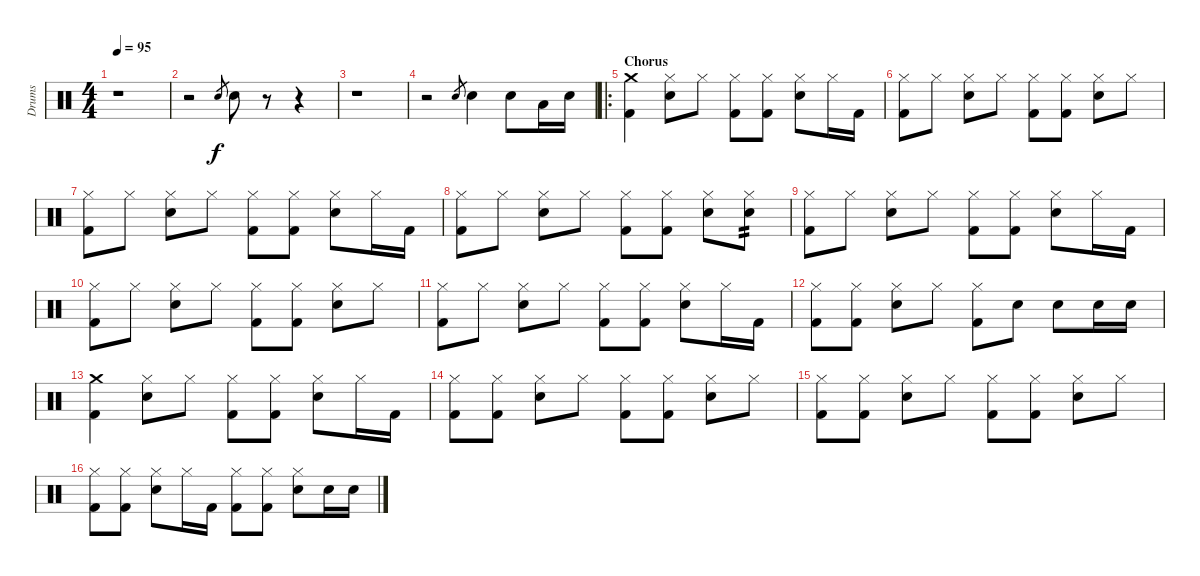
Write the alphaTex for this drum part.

\track ("Drums" "Drums") {instrument percussion}
\staff {score}
\articulation defaults
\ts (4 4)
\tempo 95
\clef neutral
\ks c
r.1{dy f} |
r.2 "Snare (hit) 2".8{gr} "Snare (hit) 2".8 r.8 r.4 |
r.1 |
r.2 "Snare (hit) 2".8{gr} "Snare (hit) 2".4 "Snare (hit) 2".8 "Low Tom (hit)".16 "Snare (hit) 2".16 |
\ro
\section ("" "Chorus")
("Crash medium (hit)" "Kick (hit) 2").4 ("Hi-Hat (closed)" "Snare (hit) 2").8 "Hi-Hat (closed)".8 ("Hi-Hat (closed)" "Kick (hit) 2").8 ("Hi-Hat (closed)" "Kick (hit) 2").8 ("Hi-Hat (closed)" "Snare (hit) 2").8 "Hi-Hat (closed)".16 "Kick (hit) 2".16 |
("Hi-Hat (closed)" "Kick (hit) 2").8 "Hi-Hat (closed)".8 ("Hi-Hat (closed)" "Snare (hit) 2").8 "Hi-Hat (closed)".8 ("Hi-Hat (closed)" "Kick (hit) 2").8 ("Hi-Hat (closed)" "Kick (hit) 2").8 ("Hi-Hat (closed)" "Snare (hit) 2").8 "Hi-Hat (closed)".8 |
("Hi-Hat (closed)" "Kick (hit) 2").8 "Hi-Hat (closed)".8 ("Hi-Hat (closed)" "Snare (hit) 2").8 "Hi-Hat (closed)".8 ("Hi-Hat (closed)" "Kick (hit) 2").8 ("Hi-Hat (closed)" "Kick (hit) 2").8 ("Hi-Hat (closed)" "Snare (hit) 2").8 "Hi-Hat (closed)".16 "Kick (hit) 2".16 |
("Hi-Hat (closed)" "Kick (hit) 2").8 "Hi-Hat (closed)".8 ("Hi-Hat (closed)" "Snare (hit) 2").8 "Hi-Hat (closed)".8 ("Hi-Hat (closed)" "Kick (hit) 2").8 ("Hi-Hat (closed)" "Kick (hit) 2").8 ("Hi-Hat (closed)" "Snare (hit) 2").8 ("Hi-Hat (closed)" "Snare (hit) 2").8{tp 2} |
("Hi-Hat (closed)" "Kick (hit) 2").8 "Hi-Hat (closed)".8 ("Hi-Hat (closed)" "Snare (hit) 2").8 "Hi-Hat (closed)".8 ("Hi-Hat (closed)" "Kick (hit) 2").8 ("Hi-Hat (closed)" "Kick (hit) 2").8 ("Hi-Hat (closed)" "Snare (hit) 2").8 "Hi-Hat (closed)".16 "Kick (hit) 2".16 |
("Hi-Hat (closed)" "Kick (hit) 2").8 "Hi-Hat (closed)".8 ("Hi-Hat (closed)" "Snare (hit) 2").8 "Hi-Hat (closed)".8 ("Hi-Hat (closed)" "Kick (hit) 2").8 ("Hi-Hat (closed)" "Kick (hit) 2").8 ("Hi-Hat (closed)" "Snare (hit) 2").8 "Hi-Hat (closed)".8 |
("Hi-Hat (closed)" "Kick (hit) 2").8 "Hi-Hat (closed)".8 ("Hi-Hat (closed)" "Snare (hit) 2").8 "Hi-Hat (closed)".8 ("Hi-Hat (closed)" "Kick (hit) 2").8 ("Hi-Hat (closed)" "Kick (hit) 2").8 ("Hi-Hat (closed)" "Snare (hit) 2").8 "Hi-Hat (closed)".16 "Kick (hit) 2".16 |
("Hi-Hat (closed)" "Kick (hit) 2").8 ("Hi-Hat (closed)" "Kick (hit) 2").8 ("Hi-Hat (closed)" "Snare (hit) 2").8 "Hi-Hat (closed)".8 ("Hi-Hat (closed)" "Kick (hit) 2").8 "Snare (hit) 2".8 "Snare (hit) 2".8 "Snare (hit) 2".16 "Snare (hit) 2".16 |
("Crash medium (hit)" "Kick (hit) 2").4 ("Hi-Hat (closed)" "Snare (hit) 2").8 "Hi-Hat (closed)".8 ("Hi-Hat (closed)" "Kick (hit) 2").8 ("Hi-Hat (closed)" "Kick (hit) 2").8 ("Hi-Hat (closed)" "Snare (hit) 2").8 "Hi-Hat (closed)".16 "Kick (hit) 2".16 |
("Hi-Hat (closed)" "Kick (hit) 2").8 ("Hi-Hat (closed)" "Kick (hit) 2").8 ("Hi-Hat (closed)" "Snare (hit) 2").8 "Hi-Hat (closed)".8 ("Hi-Hat (closed)" "Kick (hit) 2").8 ("Hi-Hat (closed)" "Kick (hit) 2").8 ("Hi-Hat (closed)" "Snare (hit) 2").8 "Hi-Hat (closed)".8 |
("Hi-Hat (closed)" "Kick (hit) 2").8 ("Hi-Hat (closed)" "Kick (hit) 2").8 ("Hi-Hat (closed)" "Snare (hit) 2").8 "Hi-Hat (closed)".8 ("Hi-Hat (closed)" "Kick (hit) 2").8 ("Hi-Hat (closed)" "Kick (hit) 2").8 ("Hi-Hat (closed)" "Snare (hit) 2").8 "Hi-Hat (closed)".8 |
("Hi-Hat (closed)" "Kick (hit) 2").8 ("Hi-Hat (closed)" "Kick (hit) 2").8 ("Hi-Hat (closed)" "Snare (hit) 2").8 "Hi-Hat (closed)".16 "Kick (hit) 2".16 ("Hi-Hat (closed)" "Kick (hit) 2").8 ("Hi-Hat (closed)" "Kick (hit) 2").8 ("Hi-Hat (closed)" "Snare (hit) 2").8 "Snare (hit) 2".16 "Snare (hit) 2".16
